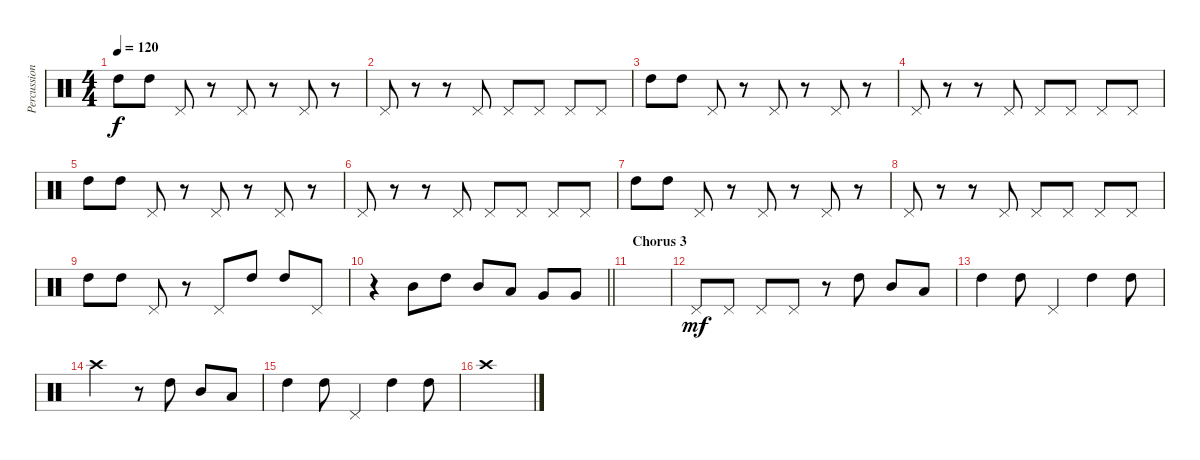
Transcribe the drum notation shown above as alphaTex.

\track ("Percussion" "Percussion") {instrument percussion}
\staff {score}
\articulation defaults
\ts (4 4)
\tempo 120
\clef neutral
\ks c "High Tom (hit)".8{dy f} "High Tom (hit)".8 "Pedal Hi-Hat (hit)".8
r.8 "Pedal Hi-Hat (hit)".8 r.8 "Pedal Hi-Hat (hit)".8 r.8 |
"Pedal Hi-Hat (hit)".8 r.8 r.8 "Pedal Hi-Hat (hit)".8 "Pedal Hi-Hat (hit)".8 "Pedal Hi-Hat (hit)".8 "Pedal Hi-Hat (hit)".8 "Pedal Hi-Hat (hit)".8 |
"High Tom (hit)".8 "High Tom (hit)".8 "Pedal Hi-Hat (hit)".8 r.8 "Pedal Hi-Hat (hit)".8 r.8 "Pedal Hi-Hat (hit)".8 r.8 |
"Pedal Hi-Hat (hit)".8 r.8 r.8 "Pedal Hi-Hat (hit)".8 "Pedal Hi-Hat (hit)".8 "Pedal Hi-Hat (hit)".8 "Pedal Hi-Hat (hit)".8 "Pedal Hi-Hat (hit)".8 |
"High Tom (hit)".8 "High Tom (hit)".8 "Pedal Hi-Hat (hit)".8 r.8 "Pedal Hi-Hat (hit)".8 r.8 "Pedal Hi-Hat (hit)".8 r.8 |
"Pedal Hi-Hat (hit)".8 r.8 r.8 "Pedal Hi-Hat (hit)".8 "Pedal Hi-Hat (hit)".8 "Pedal Hi-Hat (hit)".8 "Pedal Hi-Hat (hit)".8 "Pedal Hi-Hat (hit)".8 |
"High Tom (hit)".8 "High Tom (hit)".8 "Pedal Hi-Hat (hit)".8 r.8 "Pedal Hi-Hat (hit)".8 r.8 "Pedal Hi-Hat (hit)".8 r.8 |
"Pedal Hi-Hat (hit)".8 r.8 r.8 "Pedal Hi-Hat (hit)".8 "Pedal Hi-Hat (hit)".8 "Pedal Hi-Hat (hit)".8 "Pedal Hi-Hat (hit)".8 "Pedal Hi-Hat (hit)".8 |
"High Tom (hit)".8 "High Tom (hit)".8 "Pedal Hi-Hat (hit)".8 r.8 "Pedal Hi-Hat (hit)".8 "High Tom (hit)".8 "High Tom (hit)".8 "Pedal Hi-Hat (hit)".8 |
\barLineRight lightlight
r.4 "Mid Tom (hit)".8 "High Tom (hit)".8 "Mid Tom (hit)".8 "Low Tom (hit)".8 "Very Low Tom (hit)".8 "Very Low Tom (hit)".8 |
\section ("" "Chorus 3")
|
"Pedal Hi-Hat (hit)".8{dy mf} "Pedal Hi-Hat (hit)".8 "Pedal Hi-Hat (hit)".8 "Pedal Hi-Hat (hit)".8 r.8 "High Tom (hit)".8 "Mid Tom (hit)".8 "Low Tom (hit)".8 |
"High Tom (hit)".4 "High Tom (hit)".8 "Pedal Hi-Hat (hit)".4 "High Tom (hit)".4 "High Tom (hit)".8 |
"Crash high (hit)".2 r.8 "High Tom (hit)".8 "Mid Tom (hit)".8 "Low Tom (hit)".8 |
"High Tom (hit)".4 "High Tom (hit)".8 "Pedal Hi-Hat (hit)".4 "High Tom (hit)".4 "High Tom (hit)".8 |
"Crash high (hit)".1
